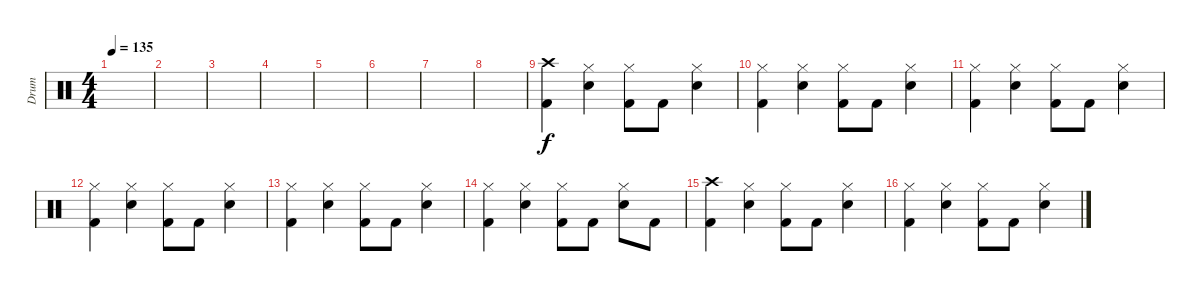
\track ("Drum" "Drum") {instrument percussion}
\staff {score}
\articulation defaults
\ts (4 4)
\tempo 135
\clef neutral
\ks c
|
|
|
|
|
|
|
|
("Kick (hit) 2" "Crash high (hit)").4 ("Snare (hit) 2" "Hi-Hat (closed)").4 ("Kick (hit) 2" "Hi-Hat (closed)").8 "Kick (hit) 2".8 ("Snare (hit) 2" "Hi-Hat (closed)").4 |
("Kick (hit) 2" "Hi-Hat (closed)").4 ("Snare (hit) 2" "Hi-Hat (closed)").4 ("Kick (hit) 2" "Hi-Hat (closed)").8 "Kick (hit) 2".8 ("Snare (hit) 2" "Hi-Hat (closed)").4 |
("Kick (hit) 2" "Hi-Hat (closed)").4 ("Snare (hit) 2" "Hi-Hat (closed)").4 ("Kick (hit) 2" "Hi-Hat (closed)").8 "Kick (hit) 2".8 ("Snare (hit) 2" "Hi-Hat (closed)").4 |
("Kick (hit) 2" "Hi-Hat (closed)").4 ("Snare (hit) 2" "Hi-Hat (closed)").4 ("Kick (hit) 2" "Hi-Hat (closed)").8 "Kick (hit) 2".8 ("Snare (hit) 2" "Hi-Hat (closed)").4 |
("Kick (hit) 2" "Hi-Hat (closed)").4 ("Snare (hit) 2" "Hi-Hat (closed)").4 ("Kick (hit) 2" "Hi-Hat (closed)").8 "Kick (hit) 2".8 ("Snare (hit) 2" "Hi-Hat (closed)").4 |
("Kick (hit) 2" "Hi-Hat (closed)").4 ("Snare (hit) 2" "Hi-Hat (closed)").4 ("Kick (hit) 2" "Hi-Hat (closed)").8 "Kick (hit) 2".8 ("Snare (hit) 2" "Hi-Hat (closed)").8 "Kick (hit) 2".8 |
("Kick (hit) 2" "Crash high (hit)").4 ("Snare (hit) 2" "Hi-Hat (closed)").4 ("Kick (hit) 2" "Hi-Hat (closed)").8 "Kick (hit) 2".8 ("Snare (hit) 2" "Hi-Hat (closed)").4 |
("Kick (hit) 2" "Hi-Hat (closed)").4 ("Snare (hit) 2" "Hi-Hat (closed)").4 ("Kick (hit) 2" "Hi-Hat (closed)").8 "Kick (hit) 2".8 ("Snare (hit) 2" "Hi-Hat (closed)").4
